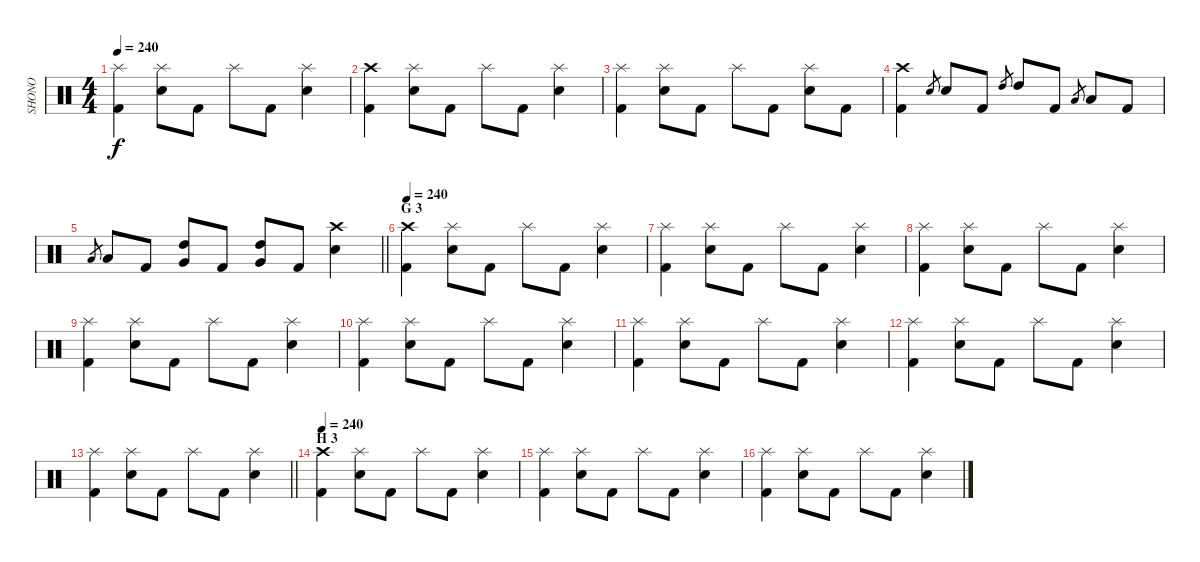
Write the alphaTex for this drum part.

\track ("SHONO" "SHONO") {instrument percussion}
\staff {score}
\articulation defaults
\ts (4 4)
\tempo 240
\clef neutral
\ks c
("Splash (hit)" "Kick (hit) 2").4{dy f} ("Splash (hit)" "Snare (hit) 2").8 "Kick (hit) 2".8 "Splash (hit)".8 "Kick (hit) 2".8 ("Splash (hit)" "Snare (hit) 2").4 |
("Crash high (hit)" "Kick (hit) 2").4 ("Splash (hit)" "Snare (hit) 2").8 "Kick (hit) 2".8 "Splash (hit)".8 "Kick (hit) 2".8 ("Splash (hit)" "Snare (hit) 2").4 |
("Splash (hit)" "Kick (hit) 2").4 ("Splash (hit)" "Snare (hit) 2").8 "Kick (hit) 2".8 "Splash (hit)".8 "Kick (hit) 2".8 ("Splash (hit)" "Snare (hit) 2").8 "Kick (hit) 2".8 |
("Crash high (hit)" "Kick (hit) 2").4 "Snare (hit) 2".8{gr} "Snare (hit) 2".8 "Kick (hit) 2".8 "High Tom (hit)".8{gr} "High Tom (hit)".8 "Kick (hit) 2".8 "Low Tom (hit)".8{gr} "Low Tom (hit)".8 "Kick (hit) 2".8 |
\barLineRight lightlight "Low Tom (hit)".8{gr} "Low Tom (hit)".8 "Kick (hit) 2".8
("Very Low Tom (hit)" "High Tom (hit)").8 "Kick (hit) 2".8 ("Very Low Tom (hit)" "High Tom (hit)").8 "Kick (hit) 2".8 ("Crash high (hit)" "Snare (hit) 2").4 |
\section ("" "G 3")
\tempo 240
("Crash high (hit)" "Kick (hit) 2").4 ("Splash (hit)" "Snare (hit) 2").8 "Kick (hit) 2".8 "Splash (hit)".8 "Kick (hit) 2".8 ("Splash (hit)" "Snare (hit) 2").4 |
("Splash (hit)" "Kick (hit) 2").4 ("Splash (hit)" "Snare (hit) 2").8 "Kick (hit) 2".8 "Splash (hit)".8 "Kick (hit) 2".8 ("Splash (hit)" "Snare (hit) 2").4 |
("Splash (hit)" "Kick (hit) 2").4 ("Splash (hit)" "Snare (hit) 2").8 "Kick (hit) 2".8 "Splash (hit)".8 "Kick (hit) 2".8 ("Splash (hit)" "Snare (hit) 2").4 |
("Splash (hit)" "Kick (hit) 2").4 ("Splash (hit)" "Snare (hit) 2").8 "Kick (hit) 2".8 "Splash (hit)".8 "Kick (hit) 2".8 ("Splash (hit)" "Snare (hit) 2").4 |
("Splash (hit)" "Kick (hit) 2").4 ("Splash (hit)" "Snare (hit) 2").8 "Kick (hit) 2".8 "Splash (hit)".8 "Kick (hit) 2".8 ("Splash (hit)" "Snare (hit) 2").4 |
("Splash (hit)" "Kick (hit) 2").4 ("Splash (hit)" "Snare (hit) 2").8 "Kick (hit) 2".8 "Splash (hit)".8 "Kick (hit) 2".8 ("Splash (hit)" "Snare (hit) 2").4 |
("Splash (hit)" "Kick (hit) 2").4 ("Splash (hit)" "Snare (hit) 2").8 "Kick (hit) 2".8 "Splash (hit)".8 "Kick (hit) 2".8 ("Splash (hit)" "Snare (hit) 2").4 |
\barLineRight lightlight
("Splash (hit)" "Kick (hit) 2").4 ("Splash (hit)" "Snare (hit) 2").8 "Kick (hit) 2".8 "Splash (hit)".8 "Kick (hit) 2".8 ("Splash (hit)" "Snare (hit) 2").4 |
\section ("" "H 3")
\tempo 240
("Crash high (hit)" "Kick (hit) 2").4 ("Splash (hit)" "Snare (hit) 2").8 "Kick (hit) 2".8 "Splash (hit)".8 "Kick (hit) 2".8 ("Splash (hit)" "Snare (hit) 2").4 |
("Splash (hit)" "Kick (hit) 2").4 ("Splash (hit)" "Snare (hit) 2").8 "Kick (hit) 2".8 "Splash (hit)".8 "Kick (hit) 2".8 ("Splash (hit)" "Snare (hit) 2").4 |
("Splash (hit)" "Kick (hit) 2").4 ("Splash (hit)" "Snare (hit) 2").8 "Kick (hit) 2".8 "Splash (hit)".8 "Kick (hit) 2".8 ("Splash (hit)" "Snare (hit) 2").4
